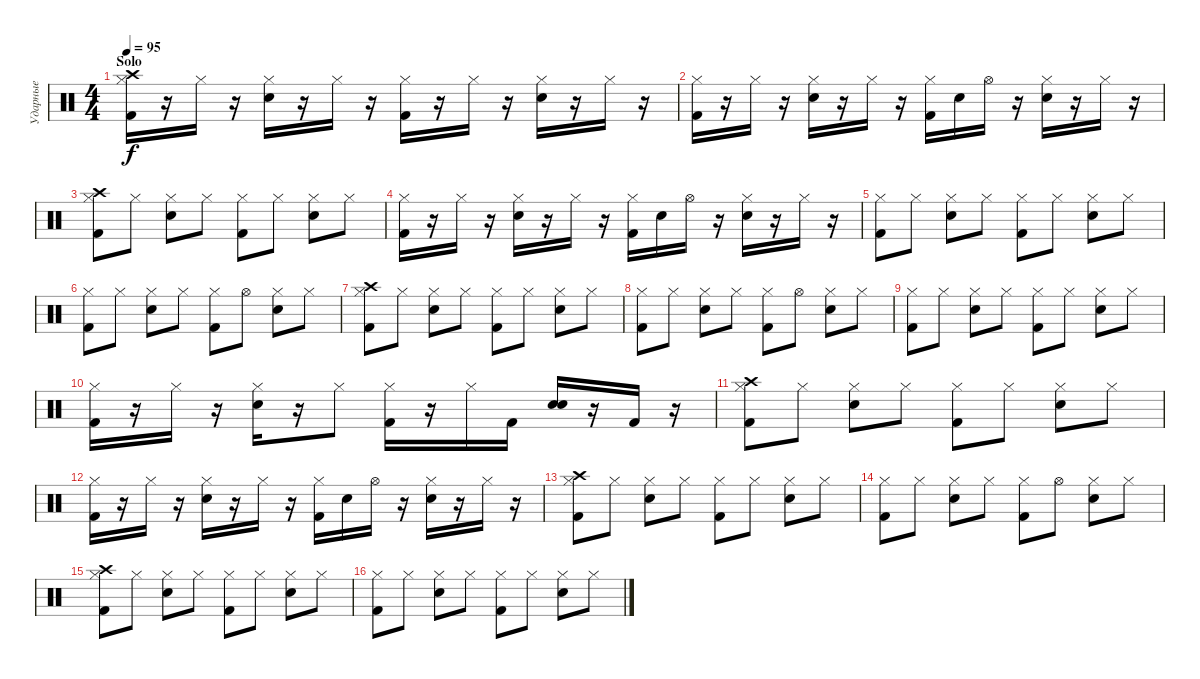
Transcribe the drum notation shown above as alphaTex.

\track ("Ударные" "Ударные") {instrument percussion}
\staff {score}
\articulation defaults
\ts (4 4)
\section ("" "Solo")
\tempo 95
\clef neutral
\ks c
("Crash high (hit)" "Hi-Hat (closed)" "Kick (hit) 2").16{dy f} r.16 "Hi-Hat (closed)".16 r.16 ("Hi-Hat (closed)" "Electric Snare (hit)").16 r.16 "Hi-Hat (closed)".16 r.16 ("Hi-Hat (closed)" "Kick (hit) 2").16 r.16 "Hi-Hat (closed)".16 r.16 ("Hi-Hat (closed)" "Electric Snare (hit)").16 r.16 "Hi-Hat (closed)".16 r.16 |
("Hi-Hat (closed)" "Kick (hit) 2").16 r.16 "Hi-Hat (closed)".16 r.16 ("Hi-Hat (closed)" "Electric Snare (hit)").16 r.16 "Hi-Hat (closed)".16 r.16 ("Hi-Hat (closed)" "Kick (hit) 2").16 "Electric Snare (hit)".16 "Hi-Hat (open)".16 r.16 ("Hi-Hat (closed)" "Electric Snare (hit)").16 r.16 "Hi-Hat (closed)".16 r.16 |
("Crash high (hit)" "Hi-Hat (closed)" "Kick (hit) 2").8 "Hi-Hat (closed)".8 ("Hi-Hat (closed)" "Electric Snare (hit)").8 "Hi-Hat (closed)".8 ("Hi-Hat (closed)" "Kick (hit) 2").8 "Hi-Hat (closed)".8 ("Hi-Hat (closed)" "Electric Snare (hit)").8 "Hi-Hat (closed)".8 |
("Hi-Hat (closed)" "Kick (hit) 2").16 r.16 "Hi-Hat (closed)".16 r.16 ("Hi-Hat (closed)" "Electric Snare (hit)").16 r.16 "Hi-Hat (closed)".16 r.16 ("Hi-Hat (closed)" "Kick (hit) 2").16 "Electric Snare (hit)".16 "Hi-Hat (open)".16 r.16 ("Hi-Hat (closed)" "Electric Snare (hit)").16 r.16 "Hi-Hat (closed)".16 r.16 |
("Hi-Hat (closed)" "Kick (hit) 2").8 "Hi-Hat (closed)".8 ("Hi-Hat (closed)" "Electric Snare (hit)").8 "Hi-Hat (closed)".8 ("Hi-Hat (closed)" "Kick (hit) 2").8 "Hi-Hat (closed)".8 ("Hi-Hat (closed)" "Electric Snare (hit)").8 "Hi-Hat (closed)".8 |
("Hi-Hat (closed)" "Kick (hit) 2").8 "Hi-Hat (closed)".8 ("Hi-Hat (closed)" "Electric Snare (hit)").8 "Hi-Hat (closed)".8 ("Hi-Hat (closed)" "Kick (hit) 2").8 "Hi-Hat (open)".8 ("Hi-Hat (closed)" "Electric Snare (hit)").8 "Hi-Hat (closed)".8 |
("Crash high (hit)" "Hi-Hat (closed)" "Kick (hit) 2").8 "Hi-Hat (closed)".8 ("Hi-Hat (closed)" "Electric Snare (hit)").8 "Hi-Hat (closed)".8 ("Hi-Hat (closed)" "Kick (hit) 2").8 "Hi-Hat (closed)".8 ("Hi-Hat (closed)" "Electric Snare (hit)").8 "Hi-Hat (closed)".8 |
("Hi-Hat (closed)" "Kick (hit) 2").8 "Hi-Hat (closed)".8 ("Hi-Hat (closed)" "Electric Snare (hit)").8 "Hi-Hat (closed)".8 ("Hi-Hat (closed)" "Kick (hit) 2").8 "Hi-Hat (open)".8 ("Hi-Hat (closed)" "Electric Snare (hit)").8 "Hi-Hat (closed)".8 |
("Hi-Hat (closed)" "Kick (hit) 2").8 "Hi-Hat (closed)".8 ("Hi-Hat (closed)" "Electric Snare (hit)").8 "Hi-Hat (closed)".8 ("Hi-Hat (closed)" "Kick (hit) 2").8 "Hi-Hat (closed)".8 ("Hi-Hat (closed)" "Electric Snare (hit)").8 "Hi-Hat (closed)".8 |
("Hi-Hat (closed)" "Kick (hit) 2").16 r.16 "Hi-Hat (closed)".16 r.16 ("Hi-Hat (closed)" "Electric Snare (hit)").16 r.16 "Hi-Hat (closed)".8 ("Hi-Hat (closed)" "Kick (hit) 2").16 r.16 "Hi-Hat (closed)".16 "Kick (hit) 2".16 ("Electric Snare (hit)" "Electric Snare (hit)").16{bu 120} r.16 "Kick (hit) 2".16 r.16 |
("Crash high (hit)" "Hi-Hat (closed)" "Kick (hit) 2").8 "Hi-Hat (closed)".8 ("Hi-Hat (closed)" "Electric Snare (hit)").8 "Hi-Hat (closed)".8 ("Hi-Hat (closed)" "Kick (hit) 2").8 "Hi-Hat (closed)".8 ("Hi-Hat (closed)" "Electric Snare (hit)").8 "Hi-Hat (closed)".8 |
("Hi-Hat (closed)" "Kick (hit) 2").16 r.16 "Hi-Hat (closed)".16 r.16 ("Hi-Hat (closed)" "Electric Snare (hit)").16 r.16 "Hi-Hat (closed)".16 r.16 ("Hi-Hat (closed)" "Kick (hit) 2").16 "Electric Snare (hit)".16 "Hi-Hat (open)".16 r.16 ("Hi-Hat (closed)" "Electric Snare (hit)").16 r.16 "Hi-Hat (closed)".16 r.16 |
("Crash high (hit)" "Hi-Hat (closed)" "Kick (hit) 2").8 "Hi-Hat (closed)".8 ("Hi-Hat (closed)" "Electric Snare (hit)").8 "Hi-Hat (closed)".8 ("Hi-Hat (closed)" "Kick (hit) 2").8 "Hi-Hat (closed)".8 ("Hi-Hat (closed)" "Electric Snare (hit)").8 "Hi-Hat (closed)".8 |
("Hi-Hat (closed)" "Kick (hit) 2").8 "Hi-Hat (closed)".8 ("Hi-Hat (closed)" "Electric Snare (hit)").8 "Hi-Hat (closed)".8 ("Hi-Hat (closed)" "Kick (hit) 2").8 "Hi-Hat (open)".8 ("Hi-Hat (closed)" "Electric Snare (hit)").8 "Hi-Hat (closed)".8 |
("Crash high (hit)" "Hi-Hat (closed)" "Kick (hit) 2").8 "Hi-Hat (closed)".8 ("Hi-Hat (closed)" "Electric Snare (hit)").8 "Hi-Hat (closed)".8 ("Hi-Hat (closed)" "Kick (hit) 2").8 "Hi-Hat (closed)".8 ("Hi-Hat (closed)" "Electric Snare (hit)").8 "Hi-Hat (closed)".8 |
("Hi-Hat (closed)" "Kick (hit) 2").8 "Hi-Hat (closed)".8 ("Hi-Hat (closed)" "Electric Snare (hit)").8 "Hi-Hat (closed)".8 ("Hi-Hat (closed)" "Kick (hit) 2").8 "Hi-Hat (closed)".8 ("Hi-Hat (closed)" "Electric Snare (hit)").8 "Hi-Hat (closed)".8
